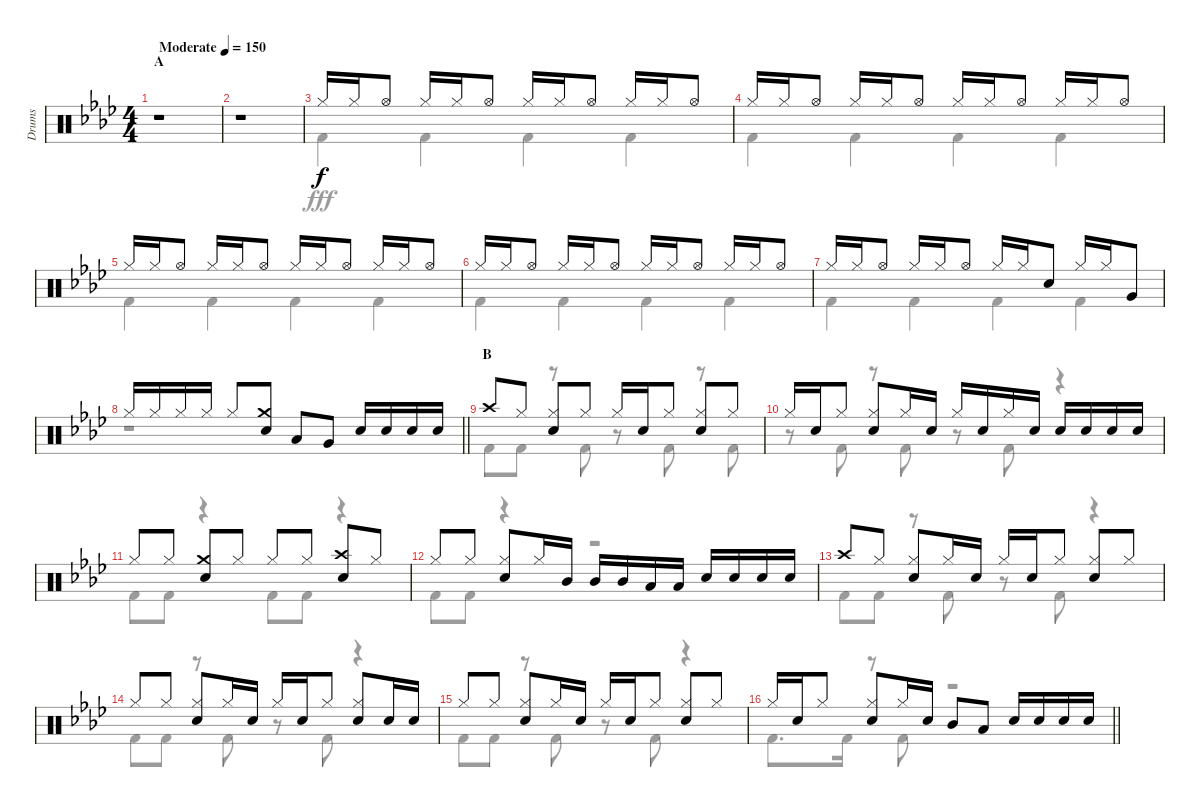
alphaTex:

\track ("Drums" "Drums") {instrument percussion}
\staff {score}
\articulation defaults
\voice
\ts (4 4)
\section ("" "A")
\tempo (150 "Moderate")
\clef neutral
\ks ab
r.1{dy f} |
r.1 |
"Hi-Hat (closed)".16 "Hi-Hat (closed)".16 "Hi-Hat (open)".8 "Hi-Hat (closed)".16 "Hi-Hat (closed)".16 "Hi-Hat (open)".8 "Hi-Hat (closed)".16 "Hi-Hat (closed)".16 "Hi-Hat (open)".8 "Hi-Hat (closed)".16 "Hi-Hat (closed)".16 "Hi-Hat (open)".8 |
"Hi-Hat (closed)".16 "Hi-Hat (closed)".16 "Hi-Hat (open)".8 "Hi-Hat (closed)".16 "Hi-Hat (closed)".16 "Hi-Hat (open)".8 "Hi-Hat (closed)".16 "Hi-Hat (closed)".16 "Hi-Hat (open)".8 "Hi-Hat (closed)".16 "Hi-Hat (closed)".16 "Hi-Hat (open)".8 |
"Hi-Hat (closed)".16 "Hi-Hat (closed)".16 "Hi-Hat (open)".8 "Hi-Hat (closed)".16 "Hi-Hat (closed)".16 "Hi-Hat (open)".8 "Hi-Hat (closed)".16 "Hi-Hat (closed)".16 "Hi-Hat (open)".8 "Hi-Hat (closed)".16 "Hi-Hat (closed)".16 "Hi-Hat (open)".8 |
"Hi-Hat (closed)".16 "Hi-Hat (closed)".16 "Hi-Hat (open)".8 "Hi-Hat (closed)".16 "Hi-Hat (closed)".16 "Hi-Hat (open)".8 "Hi-Hat (closed)".16 "Hi-Hat (closed)".16 "Hi-Hat (open)".8 "Hi-Hat (closed)".16 "Hi-Hat (closed)".16 "Hi-Hat (open)".8 |
"Hi-Hat (closed)".16 "Hi-Hat (closed)".16 "Hi-Hat (open)".8 "Hi-Hat (closed)".16 "Hi-Hat (closed)".16 "Hi-Hat (open)".8 "Hi-Hat (closed)".16 "Hi-Hat (closed)".16 "Snare (hit) 2".8 "Hi-Hat (closed)".16 "Hi-Hat (closed)".16 "Very Low Tom (hit)".8 |
\barLineRight lightlight "Hi-Hat (closed)".16 "Hi-Hat (closed)".16 "Hi-Hat (closed)".16 "Hi-Hat (closed)".16 "Hi-Hat (closed)".8
("Crash medium (hit)" "Snare (hit) 2").8 "Low Tom (hit)".8 "Very Low Tom (hit)".8 "Snare (hit) 2".16 "Snare (hit) 2".16 "Snare (hit) 2".16 "Snare (hit) 2".16 |
\section ("" "B")
"Crash high (hit)".8 "Hi-Hat (closed)".8 ("Hi-Hat (closed)" "Snare (hit) 2").8 "Hi-Hat (closed)".8 "Hi-Hat (closed)".16 "Snare (hit) 2".16 "Hi-Hat (closed)".8 ("Hi-Hat (closed)" "Snare (hit) 2").8 "Hi-Hat (closed)".8 |
"Hi-Hat (closed)".16 "Snare (hit) 2".16 "Hi-Hat (closed)".8 ("Hi-Hat (closed)" "Snare (hit) 2").8 "Hi-Hat (closed)".16 "Snare (hit) 2".16 "Hi-Hat (closed)".16 "Snare (hit) 2".16 "Hi-Hat (closed)".16 "Snare (hit) 2".16 "Snare (hit) 2".16 "Snare (hit) 2".16 "Snare (hit) 2".16 "Snare (hit) 2".16 |
"Hi-Hat (closed)".8 "Hi-Hat (closed)".8 ("Crash medium (hit)" "Snare (hit) 2").8 "Hi-Hat (closed)".8 "Hi-Hat (closed)".8 "Hi-Hat (closed)".8 ("Crash high (hit)" "Snare (hit) 2").8 "Hi-Hat (closed)".8 |
"Hi-Hat (closed)".8 "Hi-Hat (closed)".8 ("Hi-Hat (closed)" "Snare (hit) 2").8 "Hi-Hat (closed)".16 "Mid Tom (hit)".16 "Mid Tom (hit)".16 "Mid Tom (hit)".16 "Low Tom (hit)".16 "Low Tom (hit)".16 "Snare (hit) 2".16 "Snare (hit) 2".16 "Snare (hit) 2".16 "Snare (hit) 2".16 |
"Crash high (hit)".8 "Hi-Hat (closed)".8 ("Hi-Hat (closed)" "Snare (hit) 2").8 "Hi-Hat (closed)".16 "Snare (hit) 2".16 "Hi-Hat (closed)".16 "Snare (hit) 2".16 "Hi-Hat (closed)".8 ("Hi-Hat (closed)" "Snare (hit) 2").8 "Hi-Hat (closed)".8 |
"Hi-Hat (closed)".8 "Hi-Hat (closed)".8 ("Hi-Hat (closed)" "Snare (hit) 2").8 "Hi-Hat (closed)".16 "Snare (hit) 2".16 "Hi-Hat (closed)".16 "Snare (hit) 2".16 "Hi-Hat (closed)".8 ("Hi-Hat (closed)" "Snare (hit) 2").8 "Snare (hit) 2".16 "Snare (hit) 2".16 |
"Hi-Hat (closed)".8 "Hi-Hat (closed)".8 ("Hi-Hat (closed)" "Snare (hit) 2").8 "Hi-Hat (closed)".16 "Snare (hit) 2".16 "Hi-Hat (closed)".16 "Snare (hit) 2".16 "Hi-Hat (closed)".8 ("Hi-Hat (closed)" "Snare (hit) 2").8 "Hi-Hat (closed)".8 |
\barLineRight lightlight "Hi-Hat (closed)".16 "Snare (hit) 2".16 "Hi-Hat (closed)".8
("Hi-Hat (closed)" "Snare (hit) 2").8 "Hi-Hat (closed)".16 "Snare (hit) 2".16 "Mid Tom (hit)".8 "Low Tom (hit)".8 "Snare (hit) 2".16 "Snare (hit) 2".16 "Snare (hit) 2".16 "Snare (hit) 2".16
\voice
\clef neutral
\ottava regular
\simile none
\ks ab
r.1{dy fff} |
r.1 |
"Kick (hit) 2".4 "Kick (hit) 2".4 "Kick (hit) 2".4 "Kick (hit) 2".4 |
"Kick (hit) 2".4 "Kick (hit) 2".4 "Kick (hit) 2".4 "Kick (hit) 2".4 |
"Kick (hit) 2".4 "Kick (hit) 2".4 "Kick (hit) 2".4 "Kick (hit) 2".4 |
"Kick (hit) 2".4 "Kick (hit) 2".4 "Kick (hit) 2".4 "Kick (hit) 2".4 |
"Kick (hit) 2".4 "Kick (hit) 2".4 "Kick (hit) 2".4 "Kick (hit) 2".4 |
\barLineRight lightlight
r.1 |
"Kick (hit) 2".8 "Kick (hit) 2".8 r.8 "Kick (hit) 2".8 r.8 "Kick (hit) 2".8 r.8 "Kick (hit) 2".8 |
r.8 "Kick (hit) 2".8 r.8 "Kick (hit) 2".8 r.8 "Kick (hit) 2".8 r.4 |
"Kick (hit) 2".8 "Kick (hit) 2".8 r.4 "Kick (hit) 2".8 "Kick (hit) 2".8 r.4 |
"Kick (hit) 2".8 "Kick (hit) 2".8 r.4 r.2 |
"Kick (hit) 2".8 "Kick (hit) 2".8 r.8 "Kick (hit) 2".8 r.8 "Kick (hit) 2".8 r.4 |
"Kick (hit) 2".8 "Kick (hit) 2".8 r.8 "Kick (hit) 2".8 r.8 "Kick (hit) 2".8 r.4 |
"Kick (hit) 2".8 "Kick (hit) 2".8 r.8 "Kick (hit) 2".8 r.8 "Kick (hit) 2".8 r.4 |
\barLineRight lightlight "Kick (hit) 2".8{d} "Kick (hit) 2".16
r.8 "Kick (hit) 2".8 r.2
